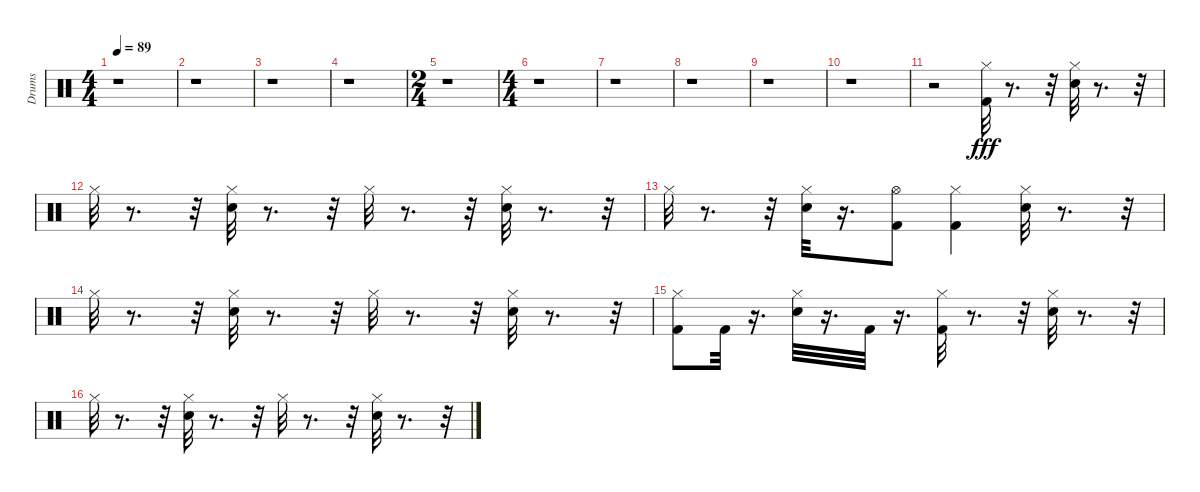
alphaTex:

\track ("Drums" "Drums") {instrument percussion}
\staff {score}
\articulation defaults
\ts (4 4)
\tempo 89
\clef neutral
\ks c
r.1{dy fff} |
r.1 |
r.1 |
r.1 |
\ts (2 4)
r.1 |
\ts (4 4)
r.1 |
r.1 |
r.1 |
r.1 |
r.1 |
r.2 ("Kick (hit) 2" "Hi-Hat (closed)").32 r.8{d} r.32 ("Snare (hit) 2" "Hi-Hat (closed)").32 r.8{d} r.32 |
"Hi-Hat (closed)".32 r.8{d} r.32 ("Snare (hit) 2" "Hi-Hat (closed)").32 r.8{d} r.32 "Hi-Hat (closed)".32 r.8{d} r.32 ("Snare (hit) 2" "Hi-Hat (closed)").32 r.8{d} r.32 |
"Hi-Hat (closed)".32 r.8{d} r.32 ("Hi-Hat (closed)" "Snare (hit) 2").32 r.16{d} ("Kick (hit) 2" "Hi-Hat (open)").8 ("Hi-Hat (closed)" "Kick (hit) 2").4 ("Hi-Hat (closed)" "Snare (hit) 2").32 r.8{d} r.32 |
"Hi-Hat (closed)".32 r.8{d} r.32 ("Snare (hit) 2" "Hi-Hat (closed)").32 r.8{d} r.32 "Hi-Hat (closed)".32 r.8{d} r.32 ("Snare (hit) 2" "Hi-Hat (closed)").32 r.8{d} r.32 |
("Hi-Hat (closed)" "Kick (hit) 2").8 "Kick (hit) 2".32 r.16{d} ("Hi-Hat (closed)" "Snare (hit) 2").32 r.16{d} "Kick (hit) 2".32 r.16{d} ("Kick (hit) 2" "Hi-Hat (closed)").32 r.8{d} r.32 ("Snare (hit) 2" "Hi-Hat (closed)").32 r.8{d} r.32 |
"Hi-Hat (closed)".32 r.8{d} r.32 ("Snare (hit) 2" "Hi-Hat (closed)").32 r.8{d} r.32 "Hi-Hat (closed)".32 r.8{d} r.32 ("Snare (hit) 2" "Hi-Hat (closed)").32 r.8{d} r.32
